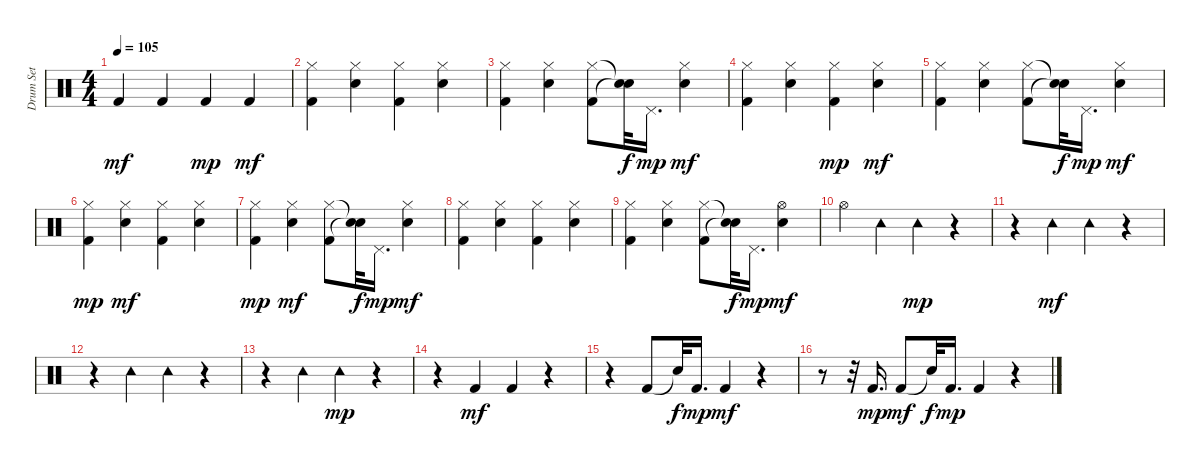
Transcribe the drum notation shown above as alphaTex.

\track ("Drum Set" "Drum Set") {instrument percussion}
\staff {score}
\articulation defaults
\ts (4 4)
\tempo 105
\clef neutral
\ks c "Kick (hit) 2".4{dy mf} "Kick (hit) 2".4 "Kick (hit) 2".4{dy mp} "Kick (hit) 2".4{dy mf}
|
("Kick (hit) 2" "Hi-Hat (closed)").4 ("Snare (hit) 2" "Hi-Hat (closed)").4 ("Kick (hit) 2" "Hi-Hat (closed)").4 ("Snare (hit) 2" "Hi-Hat (closed)").4 |
("Kick (hit) 2" "Hi-Hat (closed)").4 ("Snare (hit) 2" "Hi-Hat (closed)").4 ("Kick (hit) 2" "Hi-Hat (closed)").8 ("Snare (hit)"{t} "Snare (hit)"{t}).32{dy f} "Pedal Hi-Hat (hit)".16{d dy mp} ("Snare (hit) 2" "Hi-Hat (closed)").4{dy mf} |
("Kick (hit) 2" "Hi-Hat (closed)").4 ("Snare (hit) 2" "Hi-Hat (closed)").4 ("Kick (hit) 2" "Hi-Hat (closed)").4{dy mp} ("Snare (hit) 2" "Hi-Hat (closed)").4{dy mf} |
("Kick (hit) 2" "Hi-Hat (closed)").4 ("Snare (hit) 2" "Hi-Hat (closed)").4 ("Kick (hit) 2" "Hi-Hat (closed)").8 ("Snare (hit)"{t} "Snare (hit)"{t}).32{dy f} "Pedal Hi-Hat (hit)".16{d dy mp} ("Snare (hit) 2" "Hi-Hat (closed)").4{dy mf} |
("Kick (hit) 2" "Hi-Hat (closed)").4{dy mp} ("Snare (hit) 2" "Hi-Hat (closed)").4{dy mf} ("Kick (hit) 2" "Hi-Hat (closed)").4 ("Snare (hit) 2" "Hi-Hat (closed)").4 |
("Kick (hit) 2" "Hi-Hat (closed)").4{dy mp} ("Snare (hit) 2" "Hi-Hat (closed)").4{dy mf} ("Kick (hit) 2" "Hi-Hat (closed)").8 ("Snare (hit)"{t} "Snare (hit)"{t}).32{dy f} "Pedal Hi-Hat (hit)".16{d dy mp} ("Snare (hit) 2" "Hi-Hat (closed)").4{dy mf} |
("Kick (hit) 2" "Hi-Hat (closed)").4 ("Snare (hit) 2" "Hi-Hat (closed)").4 ("Kick (hit) 2" "Hi-Hat (closed)").4 ("Snare (hit) 2" "Hi-Hat (closed)").4 |
("Kick (hit) 2" "Hi-Hat (closed)").4 ("Snare (hit) 2" "Hi-Hat (closed)").4 ("Kick (hit) 2" "Hi-Hat (closed)").8 ("Snare (hit)"{t} "Snare (hit)"{t}).32{dy f} "Pedal Hi-Hat (hit)".16{d dy mp} ("Snare (hit) 2" "Hi-Hat (open)").4{dy mf} |
"Hi-Hat (open)".4 "Tambourine (hit)".4 "Tambourine (hit)".4{dy mp} r.4 |
r.4 "Tambourine (hit)".4{dy mf} "Tambourine (hit)".4 r.4 |
r.4 "Tambourine (hit)".4 "Tambourine (hit)".4 r.4 |
r.4 "Tambourine (hit)".4 "Tambourine (hit)".4{dy mp} r.4 |
r.4 "Kick (hit) 2".4{dy mf} "Kick (hit) 2".4 r.4 |
r.4 "Kick (hit) 2".8 "Snare (hit)"{t}.32{dy f} "Kick (hit) 2".16{d dy mp} "Kick (hit) 2".4{dy mf} r.4 |
r.8 r.32 "Kick (hit) 2".16{d dy mp} "Kick (hit) 2".8{dy mf} "Snare (hit)"{t}.32{dy f} "Kick (hit) 2".16{d dy mp} "Kick (hit) 2".4 r.4
